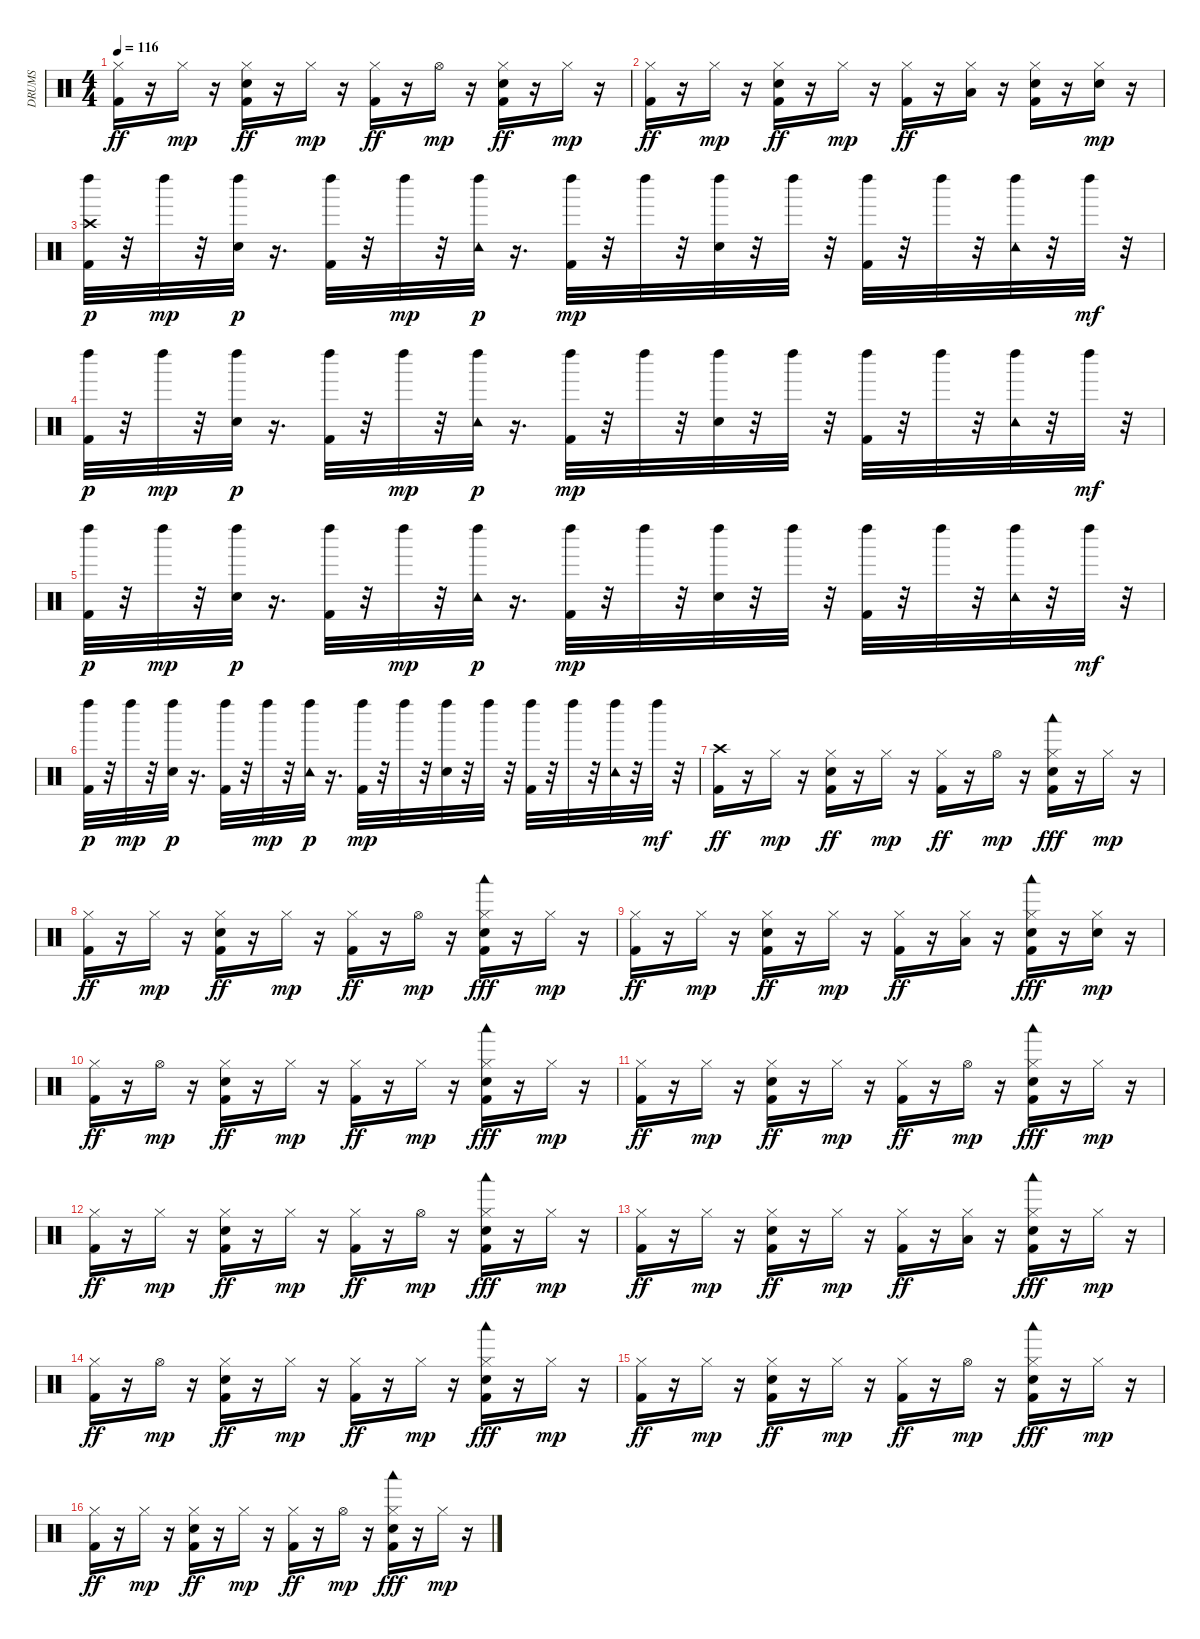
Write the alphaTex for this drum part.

\track ("DRUMS   " "DRUMS   ") {instrument percussion}
\staff {score}
\articulation defaults
\ts (4 4)
\tempo 116
\clef neutral
\ks c
("Hi-Hat (closed)" "Kick (hit) 2").16{dy ff} r.16 "Hi-Hat (closed)".16{dy mp} r.16 ("Electric Snare (hit)" "Hi-Hat (closed)" "Kick (hit) 2").16{dy ff} r.16 "Hi-Hat (closed)".16{dy mp} r.16 ("Hi-Hat (closed)" "Kick (hit) 2").16{dy ff} r.16 "Hi-Hat (open)".16{dy mp} r.16 ("Electric Snare (hit)" "Hi-Hat (closed)" "Kick (hit) 2").16{dy ff} r.16 "Hi-Hat (closed)".16{dy mp} r.16 |
("Hi-Hat (closed)" "Kick (hit) 2").16{dy ff} r.16 "Hi-Hat (closed)".16{dy mp} r.16 ("Electric Snare (hit)" "Hi-Hat (closed)" "Kick (hit) 2").16{dy ff} r.16 "Hi-Hat (closed)".16{dy mp} r.16 ("Hi-Hat (closed)" "Kick (hit) 2").16{dy ff} r.16 ("Hi-Hat (closed)" "Low Tom (hit)").16 r.16 ("Electric Snare (hit)" "Hi-Hat (closed)" "Kick (hit) 2").16 r.16 ("Electric Snare (hit)" "Hi-Hat (closed)").16{dy mp} r.16 |
("Kick (hit) 2" "Crash high (hit)" "Left Maraca (hit)").32{dy p} r.32 "Left Maraca (hit)".32{dy mp} r.32 ("Snare (hit) 2" "Left Maraca (hit)").32{dy p} r.16{d} ("Kick (hit) 2" "Left Maraca (hit)").32 r.32 "Left Maraca (hit)".32{dy mp} r.32 ("Tambourine (hit)" "Left Maraca (hit)").32{dy p} r.16{d} ("Kick (hit) 2" "Left Maraca (hit)").32{dy mp} r.32 "Left Maraca (hit)".32 r.32 ("Snare (hit) 2" "Left Maraca (hit)").32 r.32 "Left Maraca (hit)".32 r.32 ("Kick (hit) 2" "Left Maraca (hit)").32 r.32 "Left Maraca (hit)".32 r.32 ("Tambourine (hit)" "Left Maraca (hit)").32 r.32 "Left Maraca (hit)".32{dy mf} r.32 |
("Kick (hit) 2" "Left Maraca (hit)").32{dy p} r.32 "Left Maraca (hit)".32{dy mp} r.32 ("Snare (hit) 2" "Left Maraca (hit)").32{dy p} r.16{d} ("Kick (hit) 2" "Left Maraca (hit)").32 r.32 "Left Maraca (hit)".32{dy mp} r.32 ("Tambourine (hit)" "Left Maraca (hit)").32{dy p} r.16{d} ("Kick (hit) 2" "Left Maraca (hit)").32{dy mp} r.32 "Left Maraca (hit)".32 r.32 ("Snare (hit) 2" "Left Maraca (hit)").32 r.32 "Left Maraca (hit)".32 r.32 ("Kick (hit) 2" "Left Maraca (hit)").32 r.32 "Left Maraca (hit)".32 r.32 ("Tambourine (hit)" "Left Maraca (hit)").32 r.32 "Left Maraca (hit)".32{dy mf} r.32 |
("Kick (hit) 2" "Left Maraca (hit)").32{dy p} r.32 "Left Maraca (hit)".32{dy mp} r.32 ("Snare (hit) 2" "Left Maraca (hit)").32{dy p} r.16{d} ("Kick (hit) 2" "Left Maraca (hit)").32 r.32 "Left Maraca (hit)".32{dy mp} r.32 ("Tambourine (hit)" "Left Maraca (hit)").32{dy p} r.16{d} ("Kick (hit) 2" "Left Maraca (hit)").32{dy mp} r.32 "Left Maraca (hit)".32 r.32 ("Snare (hit) 2" "Left Maraca (hit)").32 r.32 "Left Maraca (hit)".32 r.32 ("Kick (hit) 2" "Left Maraca (hit)").32 r.32 "Left Maraca (hit)".32 r.32 ("Tambourine (hit)" "Left Maraca (hit)").32 r.32 "Left Maraca (hit)".32{dy mf} r.32 |
("Kick (hit) 2" "Left Maraca (hit)").32{dy p} r.32 "Left Maraca (hit)".32{dy mp} r.32 ("Snare (hit) 2" "Left Maraca (hit)").32{dy p} r.16{d} ("Kick (hit) 2" "Left Maraca (hit)").32 r.32 "Left Maraca (hit)".32{dy mp} r.32 ("Tambourine (hit)" "Left Maraca (hit)").32{dy p} r.16{d} ("Kick (hit) 2" "Left Maraca (hit)").32{dy mp} r.32 "Left Maraca (hit)".32 r.32 ("Snare (hit) 2" "Left Maraca (hit)").32 r.32 "Left Maraca (hit)".32 r.32 ("Kick (hit) 2" "Left Maraca (hit)").32 r.32 "Left Maraca (hit)".32 r.32 ("Tambourine (hit)" "Left Maraca (hit)").32 r.32 "Left Maraca (hit)".32{dy mf} r.32 |
("Crash high (hit)" "Kick (hit) 2").16{dy ff} r.16 "Hi-Hat (closed)".16{dy mp} r.16 ("Electric Snare (hit)" "Hi-Hat (closed)" "Kick (hit) 2").16{dy ff} r.16 "Hi-Hat (closed)".16{dy mp} r.16 ("Hi-Hat (closed)" "Kick (hit) 2").16{dy ff} r.16 "Hi-Hat (open)".16{dy mp} r.16 ("Electric Snare (hit)" "Hi-Hat (closed)" "Kick (hit) 2" "Woodblock low (hit)").16{dy fff} r.16 "Hi-Hat (closed)".16{dy mp} r.16 |
("Hi-Hat (closed)" "Kick (hit) 2").16{dy ff} r.16 "Hi-Hat (closed)".16{dy mp} r.16 ("Electric Snare (hit)" "Hi-Hat (closed)" "Kick (hit) 2").16{dy ff} r.16 "Hi-Hat (closed)".16{dy mp} r.16 ("Hi-Hat (closed)" "Kick (hit) 2").16{dy ff} r.16 "Hi-Hat (open)".16{dy mp} r.16 ("Electric Snare (hit)" "Hi-Hat (closed)" "Kick (hit) 2" "Woodblock low (hit)").16{dy fff} r.16 "Hi-Hat (closed)".16{dy mp} r.16 |
("Hi-Hat (closed)" "Kick (hit) 2").16{dy ff} r.16 "Hi-Hat (closed)".16{dy mp} r.16 ("Electric Snare (hit)" "Hi-Hat (closed)" "Kick (hit) 2").16{dy ff} r.16 "Hi-Hat (closed)".16{dy mp} r.16 ("Hi-Hat (closed)" "Kick (hit) 2").16{dy ff} r.16 ("Hi-Hat (closed)" "Low Tom (hit)").16 r.16 ("Electric Snare (hit)" "Hi-Hat (closed)" "Kick (hit) 2" "Woodblock low (hit)").16{dy fff} r.16 ("Electric Snare (hit)" "Hi-Hat (closed)").16{dy mp} r.16 |
("Hi-Hat (closed)" "Kick (hit) 2").16{dy ff} r.16 "Hi-Hat (open)".16{dy mp} r.16 ("Electric Snare (hit)" "Hi-Hat (closed)" "Kick (hit) 2").16{dy ff} r.16 "Hi-Hat (closed)".16{dy mp} r.16 ("Hi-Hat (closed)" "Kick (hit) 2").16{dy ff} r.16 "Hi-Hat (closed)".16{dy mp} r.16 ("Electric Snare (hit)" "Hi-Hat (closed)" "Kick (hit) 2" "Woodblock low (hit)").16{dy fff} r.16 "Hi-Hat (closed)".16{dy mp} r.16 |
("Hi-Hat (closed)" "Kick (hit) 2").16{dy ff} r.16 "Hi-Hat (closed)".16{dy mp} r.16 ("Electric Snare (hit)" "Hi-Hat (closed)" "Kick (hit) 2").16{dy ff} r.16 "Hi-Hat (closed)".16{dy mp} r.16 ("Hi-Hat (closed)" "Kick (hit) 2").16{dy ff} r.16 "Hi-Hat (open)".16{dy mp} r.16 ("Electric Snare (hit)" "Hi-Hat (closed)" "Kick (hit) 2" "Woodblock low (hit)").16{dy fff} r.16 "Hi-Hat (closed)".16{dy mp} r.16 |
("Hi-Hat (closed)" "Kick (hit) 2").16{dy ff} r.16 "Hi-Hat (closed)".16{dy mp} r.16 ("Electric Snare (hit)" "Hi-Hat (closed)" "Kick (hit) 2").16{dy ff} r.16 "Hi-Hat (closed)".16{dy mp} r.16 ("Hi-Hat (closed)" "Kick (hit) 2").16{dy ff} r.16 "Hi-Hat (open)".16{dy mp} r.16 ("Electric Snare (hit)" "Hi-Hat (closed)" "Kick (hit) 2" "Woodblock low (hit)").16{dy fff} r.16 "Hi-Hat (closed)".16{dy mp} r.16 |
("Hi-Hat (closed)" "Kick (hit) 2").16{dy ff} r.16 "Hi-Hat (closed)".16{dy mp} r.16 ("Electric Snare (hit)" "Hi-Hat (closed)" "Kick (hit) 2").16{dy ff} r.16 "Hi-Hat (closed)".16{dy mp} r.16 ("Hi-Hat (closed)" "Kick (hit) 2").16{dy ff} r.16 ("Hi-Hat (closed)" "Low Tom (hit)").16 r.16 ("Electric Snare (hit)" "Hi-Hat (closed)" "Kick (hit) 2" "Woodblock low (hit)").16{dy fff} r.16 "Hi-Hat (closed)".16{dy mp} r.16 |
("Hi-Hat (closed)" "Kick (hit) 2").16{dy ff} r.16 "Hi-Hat (open)".16{dy mp} r.16 ("Electric Snare (hit)" "Hi-Hat (closed)" "Kick (hit) 2").16{dy ff} r.16 "Hi-Hat (closed)".16{dy mp} r.16 ("Hi-Hat (closed)" "Kick (hit) 2").16{dy ff} r.16 "Hi-Hat (closed)".16{dy mp} r.16 ("Electric Snare (hit)" "Hi-Hat (closed)" "Kick (hit) 2" "Woodblock low (hit)").16{dy fff} r.16 "Hi-Hat (closed)".16{dy mp} r.16 |
("Hi-Hat (closed)" "Kick (hit) 2").16{dy ff} r.16 "Hi-Hat (closed)".16{dy mp} r.16 ("Electric Snare (hit)" "Hi-Hat (closed)" "Kick (hit) 2").16{dy ff} r.16 "Hi-Hat (closed)".16{dy mp} r.16 ("Hi-Hat (closed)" "Kick (hit) 2").16{dy ff} r.16 "Hi-Hat (open)".16{dy mp} r.16 ("Electric Snare (hit)" "Hi-Hat (closed)" "Kick (hit) 2" "Woodblock low (hit)").16{dy fff} r.16 "Hi-Hat (closed)".16{dy mp} r.16 |
("Hi-Hat (closed)" "Kick (hit) 2").16{dy ff} r.16 "Hi-Hat (closed)".16{dy mp} r.16 ("Electric Snare (hit)" "Hi-Hat (closed)" "Kick (hit) 2").16{dy ff} r.16 "Hi-Hat (closed)".16{dy mp} r.16 ("Hi-Hat (closed)" "Kick (hit) 2").16{dy ff} r.16 "Hi-Hat (open)".16{dy mp} r.16 ("Electric Snare (hit)" "Hi-Hat (closed)" "Kick (hit) 2" "Woodblock low (hit)").16{dy fff} r.16 "Hi-Hat (closed)".16{dy mp} r.16
